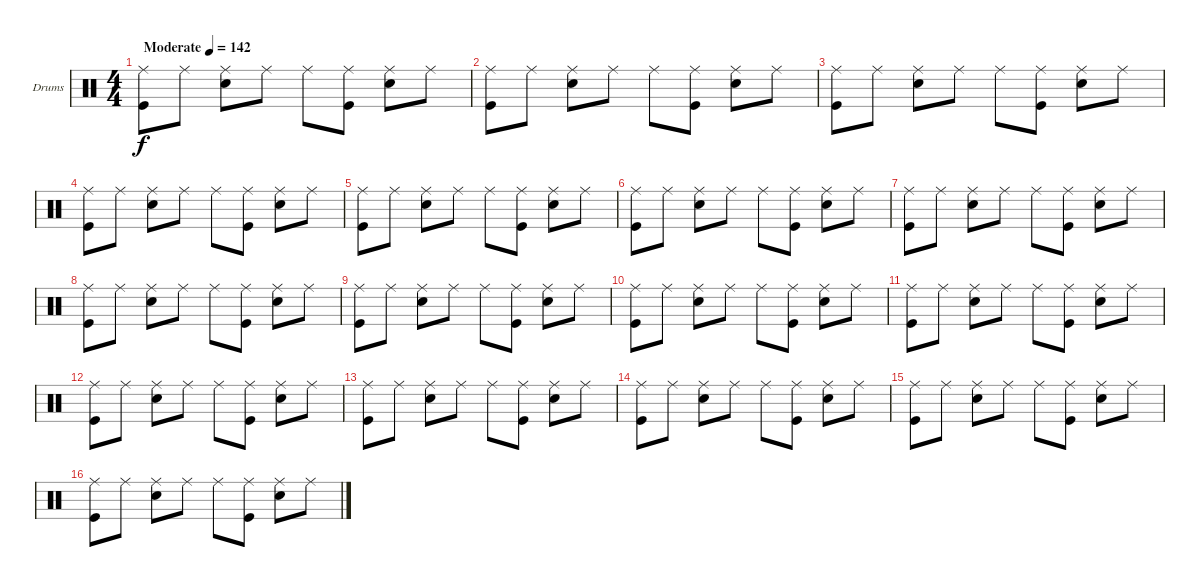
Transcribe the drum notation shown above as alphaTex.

\bracketExtendMode groupsimilarinstruments
\firstSystemTrackNameOrientation horizontal
\otherSystemsTrackNameOrientation horizontal
\track ("Drumkit" "Drums") {instrument percussion}
\staff {score}
\articulation defaults
\ts (4 4)
\beaming (8 2 2 2 2)
\tempo (142 "Moderate")
\clef neutral
\ks c
("Ride (middle)" "Kick (hit)").8{dy f} "Ride (middle)".8 ("Ride (middle)" "Snare (hit) 2").8 "Ride (middle)".8 "Ride (middle)".8 ("Ride (middle)" "Kick (hit)").8 ("Ride (middle)" "Snare (hit) 2").8 "Ride (middle)".8 |
("Kick (hit)" "Ride (middle)").8 "Ride (middle)".8 ("Ride (middle)" "Snare (hit) 2").8 "Ride (middle)".8 "Ride (middle)".8 ("Ride (middle)" "Kick (hit)").8 ("Ride (middle)" "Snare (hit) 2").8 "Ride (middle)".8 |
("Ride (middle)" "Kick (hit)").8 "Ride (middle)".8 ("Ride (middle)" "Snare (hit) 2").8 "Ride (middle)".8 "Ride (middle)".8 ("Ride (middle)" "Kick (hit)").8 ("Ride (middle)" "Snare (hit) 2").8 "Ride (middle)".8 |
("Ride (middle)" "Kick (hit)").8 "Ride (middle)".8 ("Ride (middle)" "Snare (hit) 2").8 "Ride (middle)".8 "Ride (middle)".8 ("Ride (middle)" "Kick (hit)").8 ("Ride (middle)" "Snare (hit) 2").8 "Ride (middle)".8 |
("Ride (middle)" "Kick (hit)").8 "Ride (middle)".8 ("Ride (middle)" "Snare (hit) 2").8 "Ride (middle)".8 "Ride (middle)".8 ("Ride (middle)" "Kick (hit)").8 ("Ride (middle)" "Snare (hit) 2").8 "Ride (middle)".8 |
("Ride (middle)" "Kick (hit)").8 "Ride (middle)".8 ("Ride (middle)" "Snare (hit) 2").8 "Ride (middle)".8 "Ride (middle)".8 ("Ride (middle)" "Kick (hit)").8 ("Ride (middle)" "Snare (hit) 2").8 "Ride (middle)".8 |
("Ride (middle)" "Kick (hit)").8 "Ride (middle)".8 ("Ride (middle)" "Snare (hit) 2").8 "Ride (middle)".8 "Ride (middle)".8 ("Ride (middle)" "Kick (hit)").8 ("Ride (middle)" "Snare (hit) 2").8 "Ride (middle)".8 |
("Ride (middle)" "Kick (hit)").8 "Ride (middle)".8 ("Ride (middle)" "Snare (hit) 2").8 "Ride (middle)".8 "Ride (middle)".8 ("Ride (middle)" "Kick (hit)").8 ("Ride (middle)" "Snare (hit) 2").8 "Ride (middle)".8 |
("Ride (middle)" "Kick (hit)").8 "Ride (middle)".8 ("Ride (middle)" "Snare (hit) 2").8 "Ride (middle)".8 "Ride (middle)".8 ("Ride (middle)" "Kick (hit)").8 ("Ride (middle)" "Snare (hit) 2").8 "Ride (middle)".8 |
("Kick (hit)" "Ride (middle)").8 "Ride (middle)".8 ("Ride (middle)" "Snare (hit) 2").8 "Ride (middle)".8 "Ride (middle)".8 ("Ride (middle)" "Kick (hit)").8 ("Ride (middle)" "Snare (hit) 2").8 "Ride (middle)".8 |
("Ride (middle)" "Kick (hit)").8 "Ride (middle)".8 ("Ride (middle)" "Snare (hit) 2").8 "Ride (middle)".8 "Ride (middle)".8 ("Ride (middle)" "Kick (hit)").8 ("Ride (middle)" "Snare (hit) 2").8 "Ride (middle)".8 |
("Ride (middle)" "Kick (hit)").8 "Ride (middle)".8 ("Ride (middle)" "Snare (hit) 2").8 "Ride (middle)".8 "Ride (middle)".8 ("Ride (middle)" "Kick (hit)").8 ("Ride (middle)" "Snare (hit) 2").8 "Ride (middle)".8 |
("Ride (middle)" "Kick (hit)").8 "Ride (middle)".8 ("Ride (middle)" "Snare (hit) 2").8 "Ride (middle)".8 "Ride (middle)".8 ("Ride (middle)" "Kick (hit)").8 ("Ride (middle)" "Snare (hit) 2").8 "Ride (middle)".8 |
("Kick (hit)" "Ride (middle)").8 "Ride (middle)".8 ("Ride (middle)" "Snare (hit) 2").8 "Ride (middle)".8 "Ride (middle)".8 ("Ride (middle)" "Kick (hit)").8 ("Ride (middle)" "Snare (hit) 2").8 "Ride (middle)".8 |
("Ride (middle)" "Kick (hit)").8 "Ride (middle)".8 ("Ride (middle)" "Snare (hit) 2").8 "Ride (middle)".8 "Ride (middle)".8 ("Ride (middle)" "Kick (hit)").8 ("Ride (middle)" "Snare (hit) 2").8 "Ride (middle)".8 |
("Ride (middle)" "Kick (hit)").8 "Ride (middle)".8 ("Ride (middle)" "Snare (hit) 2").8 "Ride (middle)".8 "Ride (middle)".8 ("Ride (middle)" "Kick (hit)").8 ("Ride (middle)" "Snare (hit) 2").8 "Ride (middle)".8
